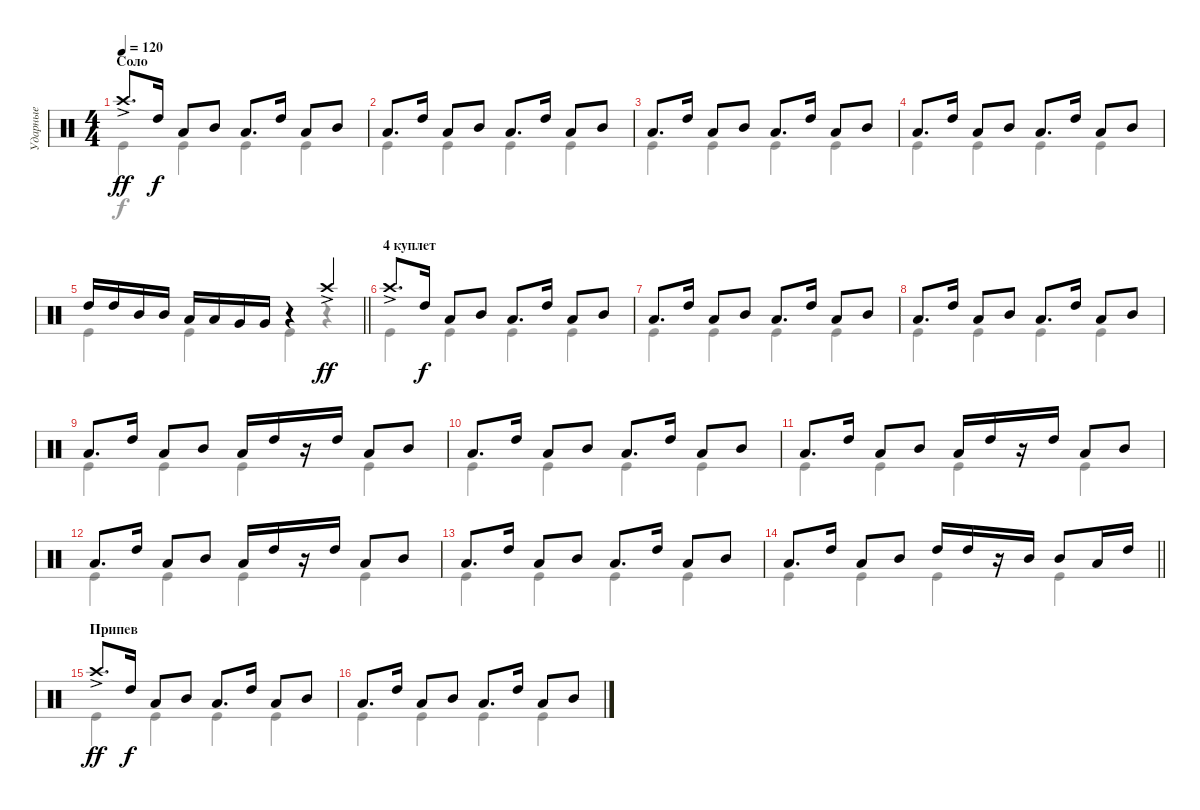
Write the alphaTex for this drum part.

\track ("Ударные" "Ударные") {instrument percussion}
\staff {score}
\articulation defaults
\voice
\ts (4 4)
\section ("" "Соло")
\tempo 120
\clef neutral
\ks c "Crash high (hit)"{ac}.8{d dy ff} "High Tom (hit)".16{dy f} "Low Tom (hit)".8 "Mid Tom (hit)".8 "Low Tom (hit)".8{d} "High Tom (hit)".16 "Low Tom (hit)".8 "Mid Tom (hit)".8
|
"Low Tom (hit)".8{d} "High Tom (hit)".16 "Low Tom (hit)".8 "Mid Tom (hit)".8 "Low Tom (hit)".8{d} "High Tom (hit)".16 "Low Tom (hit)".8 "Mid Tom (hit)".8 |
"Low Tom (hit)".8{d} "High Tom (hit)".16 "Low Tom (hit)".8 "Mid Tom (hit)".8 "Low Tom (hit)".8{d} "High Tom (hit)".16 "Low Tom (hit)".8 "Mid Tom (hit)".8 |
"Low Tom (hit)".8{d} "High Tom (hit)".16 "Low Tom (hit)".8 "Mid Tom (hit)".8 "Low Tom (hit)".8{d} "High Tom (hit)".16 "Low Tom (hit)".8 "Mid Tom (hit)".8 |
\barLineRight lightlight "High Tom (hit)".16 "High Tom (hit)".16 "Mid Tom (hit)".16 "Mid Tom (hit)".16 "Low Tom (hit)".16 "Low Tom (hit)".16 "Very Low Tom (hit)".16 "Very Low Tom (hit)".16
r.4 "Crash high (hit)"{ac}.4{dy ff} |
\section ("" "4 куплет")
"Crash high (hit)"{ac}.8{d} "High Tom (hit)".16{dy f} "Low Tom (hit)".8 "Mid Tom (hit)".8 "Low Tom (hit)".8{d} "High Tom (hit)".16 "Low Tom (hit)".8 "Mid Tom (hit)".8 |
"Low Tom (hit)".8{d} "High Tom (hit)".16 "Low Tom (hit)".8 "Mid Tom (hit)".8 "Low Tom (hit)".8{d} "High Tom (hit)".16 "Low Tom (hit)".8 "Mid Tom (hit)".8 |
"Low Tom (hit)".8{d} "High Tom (hit)".16 "Low Tom (hit)".8 "Mid Tom (hit)".8 "Low Tom (hit)".8{d} "High Tom (hit)".16 "Low Tom (hit)".8 "Mid Tom (hit)".8 |
"Low Tom (hit)".8{d} "High Tom (hit)".16 "Low Tom (hit)".8 "Mid Tom (hit)".8 "Low Tom (hit)".16 "High Tom (hit)".16 r.16 "High Tom (hit)".16 "Low Tom (hit)".8 "Mid Tom (hit)".8 |
"Low Tom (hit)".8{d} "High Tom (hit)".16 "Low Tom (hit)".8 "Mid Tom (hit)".8 "Low Tom (hit)".8{d} "High Tom (hit)".16 "Low Tom (hit)".8 "Mid Tom (hit)".8 |
"Low Tom (hit)".8{d} "High Tom (hit)".16 "Low Tom (hit)".8 "Mid Tom (hit)".8 "Low Tom (hit)".16 "High Tom (hit)".16 r.16 "High Tom (hit)".16 "Low Tom (hit)".8 "Mid Tom (hit)".8 |
"Low Tom (hit)".8{d} "High Tom (hit)".16 "Low Tom (hit)".8 "Mid Tom (hit)".8 "Low Tom (hit)".16 "High Tom (hit)".16 r.16 "High Tom (hit)".16 "Low Tom (hit)".8 "Mid Tom (hit)".8 |
"Low Tom (hit)".8{d} "High Tom (hit)".16 "Low Tom (hit)".8 "Mid Tom (hit)".8 "Low Tom (hit)".8{d} "High Tom (hit)".16 "Low Tom (hit)".8 "Mid Tom (hit)".8 |
\barLineRight lightlight "Low Tom (hit)".8{d} "High Tom (hit)".16 "Low Tom (hit)".8 "Mid Tom (hit)".8 "High Tom (hit)".16 "High Tom (hit)".16
r.16 "Mid Tom (hit)".16 "Mid Tom (hit)".8 "Low Tom (hit)".16 "High Tom (hit)".16 |
\section ("" "Припев")
"Crash high (hit)"{ac}.8{d dy ff} "High Tom (hit)".16{dy f} "Low Tom (hit)".8 "Mid Tom (hit)".8 "Low Tom (hit)".8{d} "High Tom (hit)".16 "Low Tom (hit)".8 "Mid Tom (hit)".8 |
"Low Tom (hit)".8{d} "High Tom (hit)".16 "Low Tom (hit)".8 "Mid Tom (hit)".8 "Low Tom (hit)".8{d} "High Tom (hit)".16 "Low Tom (hit)".8 "Mid Tom (hit)".8
\voice
\clef neutral
\ottava regular
\simile none
\ks c "Kick (hit)".4{dy f} "Kick (hit)".4 "Kick (hit)".4 "Kick (hit)".4
|
"Kick (hit)".4 "Kick (hit)".4 "Kick (hit)".4 "Kick (hit)".4 |
"Kick (hit)".4 "Kick (hit)".4 "Kick (hit)".4 "Kick (hit)".4 |
"Kick (hit)".4 "Kick (hit)".4 "Kick (hit)".4 "Kick (hit)".4 |
\barLineRight lightlight "Kick (hit)".4 "Kick (hit)".4 "Kick (hit)".4
r.4 |
"Kick (hit)".4 "Kick (hit)".4 "Kick (hit)".4 "Kick (hit)".4 |
"Kick (hit)".4 "Kick (hit)".4 "Kick (hit)".4 "Kick (hit)".4 |
"Kick (hit)".4 "Kick (hit)".4 "Kick (hit)".4 "Kick (hit)".4 |
"Kick (hit)".4 "Kick (hit)".4 "Kick (hit)".4 "Kick (hit)".4 |
"Kick (hit)".4 "Kick (hit)".4 "Kick (hit)".4 "Kick (hit)".4 |
"Kick (hit)".4 "Kick (hit)".4 "Kick (hit)".4 "Kick (hit)".4 |
"Kick (hit)".4 "Kick (hit)".4 "Kick (hit)".4 "Kick (hit)".4 |
"Kick (hit)".4 "Kick (hit)".4 "Kick (hit)".4 "Kick (hit)".4 |
\barLineRight lightlight "Kick (hit)".4 "Kick (hit)".4 "Kick (hit)".4 "Kick (hit)".4
|
"Kick (hit)".4 "Kick (hit)".4 "Kick (hit)".4 "Kick (hit)".4 |
"Kick (hit)".4 "Kick (hit)".4 "Kick (hit)".4 "Kick (hit)".4
